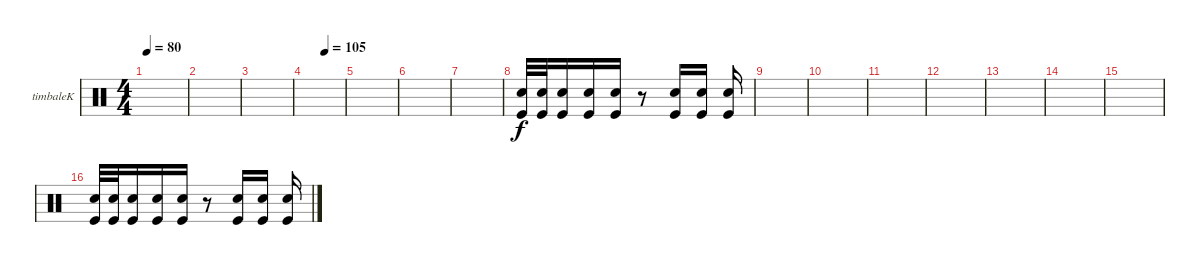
\bracketExtendMode groupsimilarinstruments
\firstSystemTrackNameOrientation horizontal
\otherSystemsTrackNameOrientation horizontal
\track ("Timbalek" "timbaleK") {instrument percussion}
\staff {score}
\articulation defaults
\ts (4 4)
\tempo 80
\clef neutral
\scale
0.333333
\ks c
|
\scale
0.333333 |
\scale
0.333333 |
\tempo (105 0.5)
\scale
0.333333 |
\scale
0.333333 |
\scale
0.333333 |
\scale
0.333333 |
\scale
0.333333 ("Snare (hit) 2" "Kick (hit)").32 ("Snare (hit) 2" "Kick (hit)").32 ("Snare (hit) 2" "Kick (hit)").16 ("Snare (hit) 2" "Kick (hit)").16 ("Snare (hit) 2" "Kick (hit)").16 r.8 ("Snare (hit) 2" "Kick (hit)").16 ("Snare (hit) 2" "Kick (hit)").16 ("Snare (hit) 2" "Kick (hit)").16 |
\scale
0.333333 |
\scale
0.333333 |
\scale
0.333333 |
\scale
0.333333 |
\scale
0.333333 |
\scale
0.333333 |
\scale
0.333333 |
\scale
0.333333 ("Snare (hit) 2" "Kick (hit)").32 ("Snare (hit) 2" "Kick (hit)").32 ("Snare (hit) 2" "Kick (hit)").16 ("Snare (hit) 2" "Kick (hit)").16 ("Snare (hit) 2" "Kick (hit)").16 r.8 ("Snare (hit) 2" "Kick (hit)").16 ("Snare (hit) 2" "Kick (hit)").16 ("Snare (hit) 2" "Kick (hit)").16
